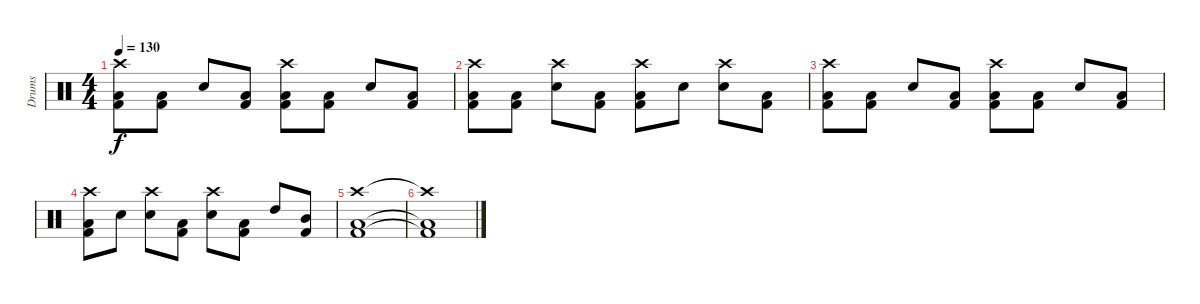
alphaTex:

\track ("Drums" "Drums") {instrument percussion}
\staff {score}
\articulation defaults
\ts (4 4)
\tempo 130
\clef neutral
\ks c
("Kick (hit) 2" "Low Floor Tom (hit)" "Crash high (hit)").8{dy f} ("Kick (hit) 2" "Low Floor Tom (hit)").8 "Electric Snare (hit)".8 ("Kick (hit) 2" "Low Floor Tom (hit)").8 ("Kick (hit) 2" "Low Floor Tom (hit)" "Crash high (hit)").8 ("Kick (hit) 2" "Low Floor Tom (hit)").8 "Electric Snare (hit)".8 ("Kick (hit) 2" "Low Floor Tom (hit)").8 |
("Kick (hit) 2" "Low Floor Tom (hit)" "Crash high (hit)").8 ("Kick (hit) 2" "Low Floor Tom (hit)").8 ("Electric Snare (hit)" "Crash high (hit)").8 ("Kick (hit) 2" "Low Floor Tom (hit)").8 ("Kick (hit) 2" "Low Floor Tom (hit)" "Crash high (hit)").8 "Electric Snare (hit)".8 ("Electric Snare (hit)" "Crash high (hit)").8 ("Kick (hit) 2" "Low Floor Tom (hit)").8 |
("Kick (hit) 2" "Low Floor Tom (hit)" "Crash high (hit)").8 ("Kick (hit) 2" "Low Floor Tom (hit)").8 "Electric Snare (hit)".8 ("Kick (hit) 2" "Low Floor Tom (hit)").8 ("Kick (hit) 2" "Low Floor Tom (hit)" "Crash high (hit)").8 ("Kick (hit) 2" "Low Floor Tom (hit)").8 "Electric Snare (hit)".8 ("Kick (hit) 2" "Low Floor Tom (hit)").8 |
("Kick (hit) 2" "Low Floor Tom (hit)" "Crash high (hit)").8 "Electric Snare (hit)".8 ("Electric Snare (hit)" "Crash high (hit)").8 ("Kick (hit) 2" "Low Floor Tom (hit)").8 ("Electric Snare (hit)" "Crash high (hit)").8 ("Kick (hit) 2" "Low Floor Tom (hit)").8 "High Tom (hit)".8 ("Kick (hit) 2" "Mid Tom (hit)").8 |
("Kick (hit) 2" "Low Floor Tom (hit)" "Crash high (hit)").1 |
("Kick (hit) 2"{t} "Low Floor Tom (hit)"{t} "Crash high (hit)"{t}).1
